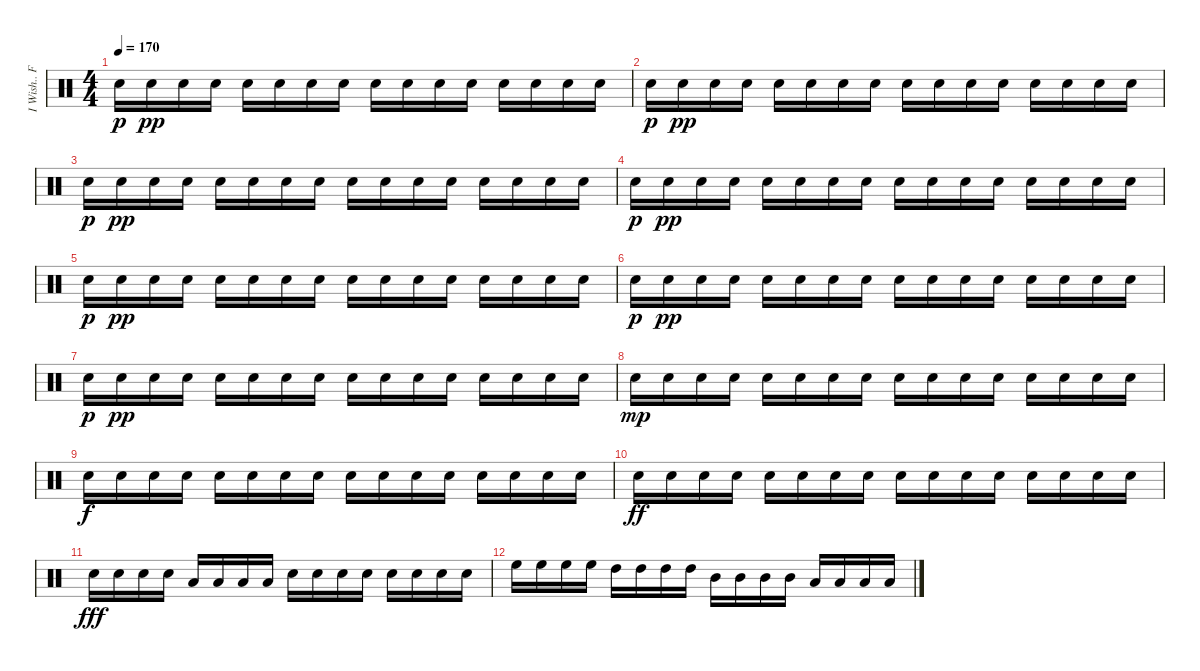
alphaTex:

\track ("I Wish.. Fade In" "I Wish.. F") {instrument percussion}
\staff {score}
\articulation defaults
\ts (4 4)
\tempo 170
\clef neutral
\ks c "Electric Snare (hit)".16{dy p} "Electric Snare (hit)".16{dy pp} "Electric Snare (hit)".16 "Electric Snare (hit)".16 "Electric Snare (hit)".16 "Electric Snare (hit)".16 "Electric Snare (hit)".16 "Electric Snare (hit)".16 "Electric Snare (hit)".16 "Electric Snare (hit)".16 "Electric Snare (hit)".16 "Electric Snare (hit)".16 "Electric Snare (hit)".16 "Electric Snare (hit)".16 "Electric Snare (hit)".16 "Electric Snare (hit)".16
|
"Electric Snare (hit)".16{dy p} "Electric Snare (hit)".16{dy pp} "Electric Snare (hit)".16 "Electric Snare (hit)".16 "Electric Snare (hit)".16 "Electric Snare (hit)".16 "Electric Snare (hit)".16 "Electric Snare (hit)".16 "Electric Snare (hit)".16 "Electric Snare (hit)".16 "Electric Snare (hit)".16 "Electric Snare (hit)".16 "Electric Snare (hit)".16 "Electric Snare (hit)".16 "Electric Snare (hit)".16 "Electric Snare (hit)".16 |
"Electric Snare (hit)".16{dy p} "Electric Snare (hit)".16{dy pp} "Electric Snare (hit)".16 "Electric Snare (hit)".16 "Electric Snare (hit)".16 "Electric Snare (hit)".16 "Electric Snare (hit)".16 "Electric Snare (hit)".16 "Electric Snare (hit)".16 "Electric Snare (hit)".16 "Electric Snare (hit)".16 "Electric Snare (hit)".16 "Electric Snare (hit)".16 "Electric Snare (hit)".16 "Electric Snare (hit)".16 "Electric Snare (hit)".16 |
"Electric Snare (hit)".16{dy p} "Electric Snare (hit)".16{dy pp} "Electric Snare (hit)".16 "Electric Snare (hit)".16 "Electric Snare (hit)".16 "Electric Snare (hit)".16 "Electric Snare (hit)".16 "Electric Snare (hit)".16 "Electric Snare (hit)".16 "Electric Snare (hit)".16 "Electric Snare (hit)".16 "Electric Snare (hit)".16 "Electric Snare (hit)".16 "Electric Snare (hit)".16 "Electric Snare (hit)".16 "Electric Snare (hit)".16 |
"Electric Snare (hit)".16{dy p} "Electric Snare (hit)".16{dy pp} "Electric Snare (hit)".16 "Electric Snare (hit)".16 "Electric Snare (hit)".16 "Electric Snare (hit)".16 "Electric Snare (hit)".16 "Electric Snare (hit)".16 "Electric Snare (hit)".16 "Electric Snare (hit)".16 "Electric Snare (hit)".16 "Electric Snare (hit)".16 "Electric Snare (hit)".16 "Electric Snare (hit)".16 "Electric Snare (hit)".16 "Electric Snare (hit)".16 |
"Electric Snare (hit)".16{dy p} "Electric Snare (hit)".16{dy pp} "Electric Snare (hit)".16 "Electric Snare (hit)".16 "Electric Snare (hit)".16 "Electric Snare (hit)".16 "Electric Snare (hit)".16 "Electric Snare (hit)".16 "Electric Snare (hit)".16 "Electric Snare (hit)".16 "Electric Snare (hit)".16 "Electric Snare (hit)".16 "Electric Snare (hit)".16 "Electric Snare (hit)".16 "Electric Snare (hit)".16 "Electric Snare (hit)".16 |
"Electric Snare (hit)".16{dy p} "Electric Snare (hit)".16{dy pp} "Electric Snare (hit)".16 "Electric Snare (hit)".16 "Electric Snare (hit)".16 "Electric Snare (hit)".16 "Electric Snare (hit)".16 "Electric Snare (hit)".16 "Electric Snare (hit)".16 "Electric Snare (hit)".16 "Electric Snare (hit)".16 "Electric Snare (hit)".16 "Electric Snare (hit)".16 "Electric Snare (hit)".16 "Electric Snare (hit)".16 "Electric Snare (hit)".16 |
"Electric Snare (hit)".16{dy mp} "Electric Snare (hit)".16 "Electric Snare (hit)".16 "Electric Snare (hit)".16 "Electric Snare (hit)".16 "Electric Snare (hit)".16 "Electric Snare (hit)".16 "Electric Snare (hit)".16 "Electric Snare (hit)".16 "Electric Snare (hit)".16 "Electric Snare (hit)".16 "Electric Snare (hit)".16 "Electric Snare (hit)".16 "Electric Snare (hit)".16 "Electric Snare (hit)".16 "Electric Snare (hit)".16 |
"Electric Snare (hit)".16{dy f} "Electric Snare (hit)".16 "Electric Snare (hit)".16 "Electric Snare (hit)".16 "Electric Snare (hit)".16 "Electric Snare (hit)".16 "Electric Snare (hit)".16 "Electric Snare (hit)".16 "Electric Snare (hit)".16 "Electric Snare (hit)".16 "Electric Snare (hit)".16 "Electric Snare (hit)".16 "Electric Snare (hit)".16 "Electric Snare (hit)".16 "Electric Snare (hit)".16 "Electric Snare (hit)".16 |
"Electric Snare (hit)".16{dy ff} "Electric Snare (hit)".16 "Electric Snare (hit)".16 "Electric Snare (hit)".16 "Electric Snare (hit)".16 "Electric Snare (hit)".16 "Electric Snare (hit)".16 "Electric Snare (hit)".16 "Electric Snare (hit)".16 "Electric Snare (hit)".16 "Electric Snare (hit)".16 "Electric Snare (hit)".16 "Electric Snare (hit)".16 "Electric Snare (hit)".16 "Electric Snare (hit)".16 "Electric Snare (hit)".16 |
"Electric Snare (hit)".16{dy fff} "Electric Snare (hit)".16 "Electric Snare (hit)".16 "Electric Snare (hit)".16 "Low Tom (hit)".16 "Low Tom (hit)".16 "Low Tom (hit)".16 "Low Tom (hit)".16 "Electric Snare (hit)".16 "Electric Snare (hit)".16 "Electric Snare (hit)".16 "Electric Snare (hit)".16 "Electric Snare (hit)".16 "Electric Snare (hit)".16 "Electric Snare (hit)".16 "Electric Snare (hit)".16 |
"High Floor Tom (hit)".16 "High Floor Tom (hit)".16 "High Floor Tom (hit)".16 "High Floor Tom (hit)".16 "High Tom (hit)".16 "High Tom (hit)".16 "High Tom (hit)".16 "High Tom (hit)".16 "Mid Tom (hit)".16 "Mid Tom (hit)".16 "Mid Tom (hit)".16 "Mid Tom (hit)".16 "Low Tom (hit)".16 "Low Tom (hit)".16 "Low Tom (hit)".16 "Low Tom (hit)".16
